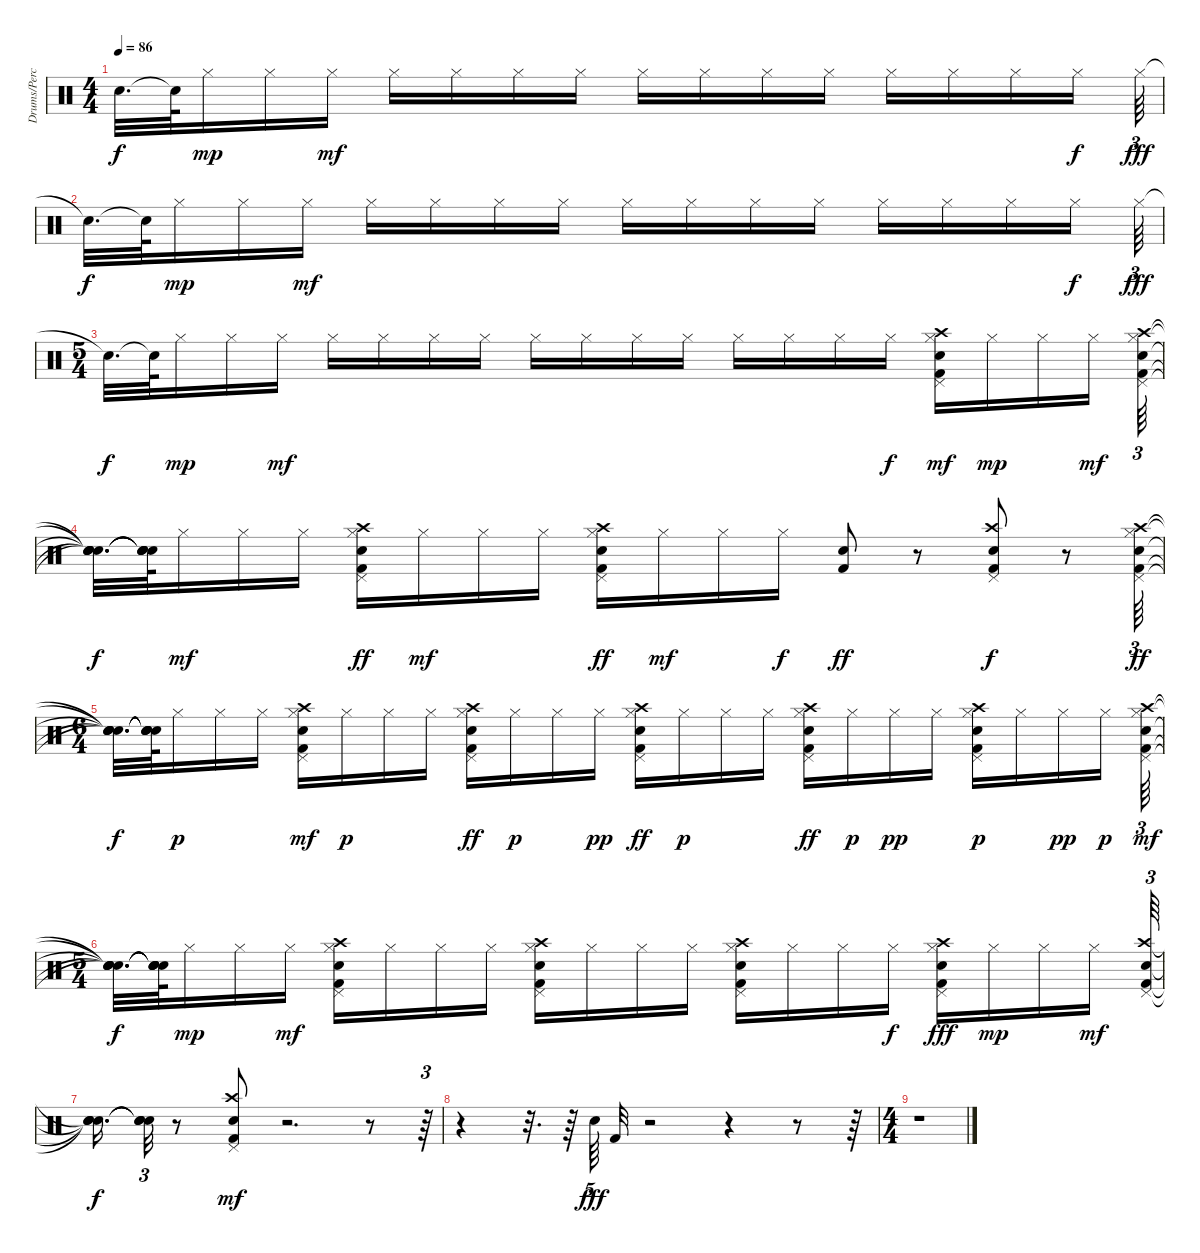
\track ("Drums/Percussion" "Drums/Perc") {instrument percussion}
\staff {score}
\articulation defaults
\ts (4 4)
\tempo 86
\clef neutral
\ks c "Snare (hit)"{t}.32{d dy f} "Snare (hit)"{t}.64 "Hi-Hat (closed)".16{dy mp} "Hi-Hat (closed)".16 "Hi-Hat (closed)".16{dy mf} "Hi-Hat (closed)".16 "Hi-Hat (closed)".16 "Hi-Hat (closed)".16 "Hi-Hat (closed)".16 "Hi-Hat (closed)".16 "Hi-Hat (closed)".16 "Hi-Hat (closed)".16 "Hi-Hat (closed)".16 "Hi-Hat (closed)".16 "Hi-Hat (closed)".16 "Hi-Hat (closed)".16 "Hi-Hat (closed)".16{dy f} "Hi-Hat (closed)".64{tu (3 2) dy fff}
|
"Snare (hit)"{t}.32{d dy f} "Snare (hit)"{t}.64 "Hi-Hat (closed)".16{dy mp} "Hi-Hat (closed)".16 "Hi-Hat (closed)".16{dy mf} "Hi-Hat (closed)".16 "Hi-Hat (closed)".16 "Hi-Hat (closed)".16 "Hi-Hat (closed)".16 "Hi-Hat (closed)".16 "Hi-Hat (closed)".16 "Hi-Hat (closed)".16 "Hi-Hat (closed)".16 "Hi-Hat (closed)".16 "Hi-Hat (closed)".16 "Hi-Hat (closed)".16 "Hi-Hat (closed)".16{dy f} "Hi-Hat (closed)".64{tu (3 2) dy fff} |
\ts (5 4)
"Snare (hit)"{t}.32{d dy f} "Snare (hit)"{t}.64 "Hi-Hat (closed)".16{dy mp} "Hi-Hat (closed)".16 "Hi-Hat (closed)".16{dy mf} "Hi-Hat (closed)".16 "Hi-Hat (closed)".16 "Hi-Hat (closed)".16 "Hi-Hat (closed)".16 "Hi-Hat (closed)".16 "Hi-Hat (closed)".16 "Hi-Hat (closed)".16 "Hi-Hat (closed)".16{volume 9} "Hi-Hat (closed)".16{volume 10} "Hi-Hat (closed)".16{volume 10} "Hi-Hat (closed)".16 "Hi-Hat (closed)".16{dy f} ("Hi-Hat (closed)" "Pedal Hi-Hat (hit)" "Crash high (hit)" "Electric Snare (hit)" "Kick (hit) 2").16{dy mf} "Hi-Hat (closed)".16{dy mp} "Hi-Hat (closed)".16 "Hi-Hat (closed)".16{dy mf} ("Hi-Hat (closed)" "Crash high (hit)" "Pedal Hi-Hat (hit)" "Kick (hit) 2" "Electric Snare (hit)").64{tu (3 2) volume 11} |
("Snare (hit)"{t} "Snare (hit)"{t} "Snare (hit)"{t} "Snare (hit)"{t} "Snare (hit)"{t}).32{d dy f} ("Snare (hit)"{t} "Snare (hit)"{t} "Snare (hit)"{t} "Snare (hit)"{t} "Snare (hit)"{t}).64 "Hi-Hat (closed)".16{dy mf volume 12} "Hi-Hat (closed)".16 "Hi-Hat (closed)".16 ("Hi-Hat (closed)" "Electric Snare (hit)" "Crash high (hit)" "Kick (hit) 2" "Pedal Hi-Hat (hit)").16{dy ff} "Hi-Hat (closed)".16{dy mf} "Hi-Hat (closed)".16 "Hi-Hat (closed)".16 ("Hi-Hat (closed)" "Pedal Hi-Hat (hit)" "Crash high (hit)" "Kick (hit) 2" "Electric Snare (hit)").16{dy ff} "Hi-Hat (closed)".16{dy mf} "Hi-Hat (closed)".16 "Hi-Hat (closed)".16{dy f} ("Kick (hit) 2" "Electric Snare (hit)").8{dy ff} r.8 ("Crash high (hit)" "Pedal Hi-Hat (hit)" "Electric Snare (hit)" "Kick (hit) 2").8{dy f} r.8 ("Hi-Hat (closed)" "Kick (hit) 2" "Electric Snare (hit)" "Pedal Hi-Hat (hit)" "Crash high (hit)").64{tu (3 2) dy ff} |
\ts (6 4)
("Snare (hit)"{t} "Snare (hit)"{t} "Snare (hit)"{t} "Snare (hit)"{t} "Snare (hit)"{t}).32{d dy f} ("Snare (hit)"{t} "Snare (hit)"{t} "Snare (hit)"{t} "Snare (hit)"{t} "Snare (hit)"{t}).64 "Hi-Hat (closed)".16{dy p} "Hi-Hat (closed)".16 "Hi-Hat (closed)".16 ("Hi-Hat (closed)" "Pedal Hi-Hat (hit)" "Crash high (hit)" "Electric Snare (hit)" "Kick (hit) 2").16{dy mf} "Hi-Hat (closed)".16{dy p} "Hi-Hat (closed)".16 "Hi-Hat (closed)".16 ("Hi-Hat (closed)" "Pedal Hi-Hat (hit)" "Crash high (hit)" "Electric Snare (hit)" "Kick (hit) 2").16{dy ff} "Hi-Hat (closed)".16{dy p} "Hi-Hat (closed)".16 "Hi-Hat (closed)".16{dy pp} ("Hi-Hat (closed)" "Crash high (hit)" "Pedal Hi-Hat (hit)" "Electric Snare (hit)" "Kick (hit) 2").16{dy ff} "Hi-Hat (closed)".16{dy p} "Hi-Hat (closed)".16 "Hi-Hat (closed)".16 ("Hi-Hat (closed)" "Crash high (hit)" "Pedal Hi-Hat (hit)" "Electric Snare (hit)" "Kick (hit) 2").16{dy ff} "Hi-Hat (closed)".16{dy p} "Hi-Hat (closed)".16{dy pp} "Hi-Hat (closed)".16 ("Hi-Hat (closed)" "Pedal Hi-Hat (hit)" "Kick (hit) 2" "Electric Snare (hit)" "Crash high (hit)").16{dy p} "Hi-Hat (closed)".16 "Hi-Hat (closed)".16{dy pp} "Hi-Hat (closed)".16{dy p} ("Hi-Hat (closed)" "Pedal Hi-Hat (hit)" "Kick (hit) 2" "Crash high (hit)" "Electric Snare (hit)").64{tu (3 2) dy mf} |
\ts (5 4)
("Snare (hit)"{t} "Snare (hit)"{t} "Snare (hit)"{t} "Snare (hit)"{t} "Snare (hit)"{t}).32{d dy f} ("Snare (hit)"{t} "Snare (hit)"{t} "Snare (hit)"{t} "Snare (hit)"{t} "Snare (hit)"{t}).64 "Hi-Hat (closed)".16{dy mp} "Hi-Hat (closed)".16 "Hi-Hat (closed)".16{dy mf} ("Hi-Hat (closed)" "Crash high (hit)" "Pedal Hi-Hat (hit)" "Electric Snare (hit)" "Kick (hit) 2").16 "Hi-Hat (closed)".16 "Hi-Hat (closed)".16 "Hi-Hat (closed)".16 ("Hi-Hat (closed)" "Pedal Hi-Hat (hit)" "Kick (hit) 2" "Crash high (hit)" "Electric Snare (hit)").16 "Hi-Hat (closed)".16 "Hi-Hat (closed)".16 "Hi-Hat (closed)".16 ("Hi-Hat (closed)" "Crash high (hit)" "Pedal Hi-Hat (hit)" "Electric Snare (hit)" "Kick (hit) 2").16 "Hi-Hat (closed)".16 "Hi-Hat (closed)".16 "Hi-Hat (closed)".16{dy f} ("Hi-Hat (closed)" "Kick (hit) 2" "Electric Snare (hit)" "Pedal Hi-Hat (hit)" "Crash high (hit)").16{dy fff} "Hi-Hat (closed)".16{dy mp} "Hi-Hat (closed)".16 "Hi-Hat (closed)".16{dy mf} ("Electric Snare (hit)" "Kick (hit) 2" "Crash high (hit)" "Pedal Hi-Hat (hit)").64{tu (3 2)} |
("Snare (hit)"{t} "Snare (hit)"{t} "Snare (hit)"{t} "Snare (hit)"{t}).16{d dy f} ("Snare (hit)"{t} "Snare (hit)"{t} "Snare (hit)"{t} "Snare (hit)"{t}).32{tu (3 2)} r.8 ("Kick (hit) 2" "Pedal Hi-Hat (hit)" "Crash high (hit)" "Electric Snare (hit)").8{dy mf} r.2{d} r.8 r.64{tu (3 2)} |
r.4 r.32{d} r.64 "Electric Snare (hit)".64{tu (5 4) dy fff} "Kick (hit) 2".32 r.2 r.4 r.8 r.64 |
\ts (4 4)
r.1
